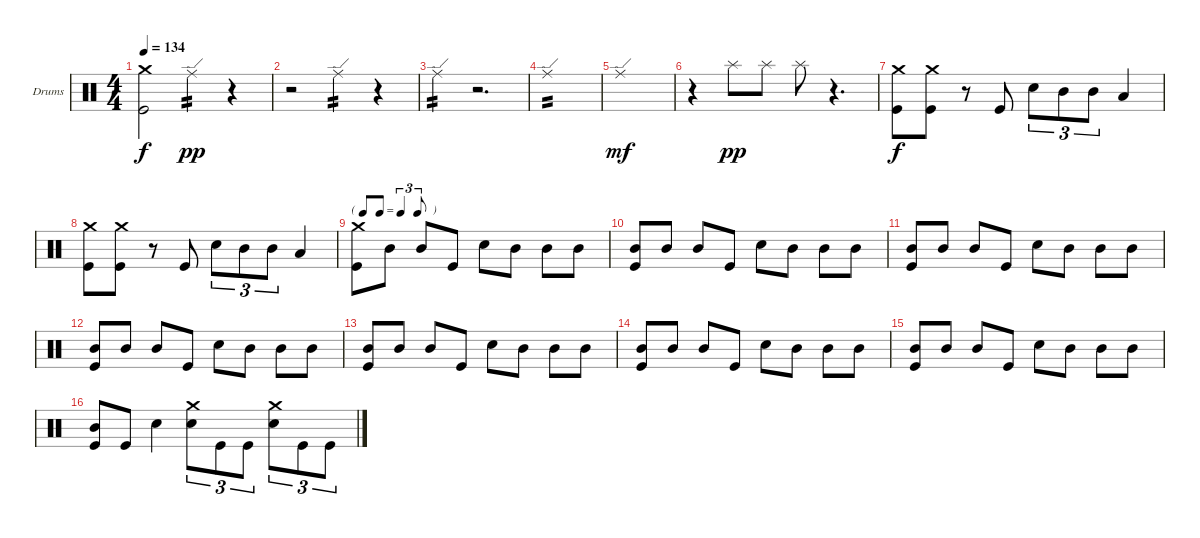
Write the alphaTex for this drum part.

\defaultSystemsLayout 4
\bracketExtendMode groupsimilarinstruments
\firstSystemTrackNameOrientation horizontal
\otherSystemsTrackNameOrientation horizontal
\track ("Drumkit" "Drums") {instrument percussion}
\staff {score}
\articulation defaults
\ts (4 4)
\tempo 134
\clef neutral
\ks c
("Kick (hit)" "Crash medium (hit)").2{dy f} "Ride (edge)".4{tp 2 dy pp} r.4 |
r.2 "Ride (edge)".4{tp 2} r.4 |
"Ride (edge)".4{tp 2} r.2{d} |
"Ride (edge)".1{tp 2} |
"Ride (edge)".1{dy mf} |
r.4 "Splash (hit)".8{dy pp} "Splash (hit)".8 "Splash (hit)".8 r.4{d} |
("Kick (hit)" "Crash medium (hit)").8{dy f} ("Kick (hit)" "Crash medium (hit)").8 r.8 "Kick (hit)".8 "Snare (hit) 2".8{tu (3 2)} "Mid Tom (hit)".8{tu (3 2)} "Mid Tom (hit)".8{tu (3 2)} "Low Tom (hit)".4 |
("Kick (hit)" "Crash medium (hit)").8 ("Kick (hit)" "Crash medium (hit)").8 r.8 "Kick (hit)".8 "Snare (hit) 2".8{tu (3 2)} "Mid Tom (hit)".8{tu (3 2)} "Mid Tom (hit)".8{tu (3 2)} "Low Tom (hit)".4 |
\tf triplet8th
("Kick (hit)" "Crash medium (hit)").8 "Mid Tom (hit)".8 "Mid Tom (hit)".8 "Kick (hit)".8 "Snare (hit) 2".8 "Mid Tom (hit)".8 "Mid Tom (hit)".8 "Mid Tom (hit)".8 |
("Kick (hit)" "Mid Tom (hit)").8 "Mid Tom (hit)".8 "Mid Tom (hit)".8 "Kick (hit)".8 "Snare (hit) 2".8 "Mid Tom (hit)".8 "Mid Tom (hit)".8 "Mid Tom (hit)".8 |
("Kick (hit)" "Mid Tom (hit)").8 "Mid Tom (hit)".8 "Mid Tom (hit)".8 "Kick (hit)".8 "Snare (hit) 2".8 "Mid Tom (hit)".8 "Mid Tom (hit)".8 "Mid Tom (hit)".8 |
("Kick (hit)" "Mid Tom (hit)").8 "Mid Tom (hit)".8 "Mid Tom (hit)".8 "Kick (hit)".8 "Snare (hit) 2".8 "Mid Tom (hit)".8 "Mid Tom (hit)".8 "Mid Tom (hit)".8 |
("Kick (hit)" "Mid Tom (hit)").8 "Mid Tom (hit)".8 "Mid Tom (hit)".8 "Kick (hit)".8 "Snare (hit) 2".8 "Mid Tom (hit)".8 "Mid Tom (hit)".8 "Mid Tom (hit)".8 |
("Kick (hit)" "Mid Tom (hit)").8 "Mid Tom (hit)".8 "Mid Tom (hit)".8 "Kick (hit)".8 "Snare (hit) 2".8 "Mid Tom (hit)".8 "Mid Tom (hit)".8 "Mid Tom (hit)".8 |
("Kick (hit)" "Mid Tom (hit)").8 "Mid Tom (hit)".8 "Mid Tom (hit)".8 "Kick (hit)".8 "Snare (hit) 2".8 "Mid Tom (hit)".8 "Mid Tom (hit)".8 "Mid Tom (hit)".8 |
("Kick (hit)" "Mid Tom (hit)").8 "Kick (hit)".8 "Snare (hit) 2".4 ("Snare (hit) 2" "Crash medium (hit)").8{tu (3 2)} "Kick (hit)".8{tu (3 2)} "Kick (hit)".8{tu (3 2)} ("Snare (hit) 2" "Crash medium (hit)").8{tu (3 2)} "Kick (hit)".8{tu (3 2)} "Kick (hit)".8{tu (3 2)}
